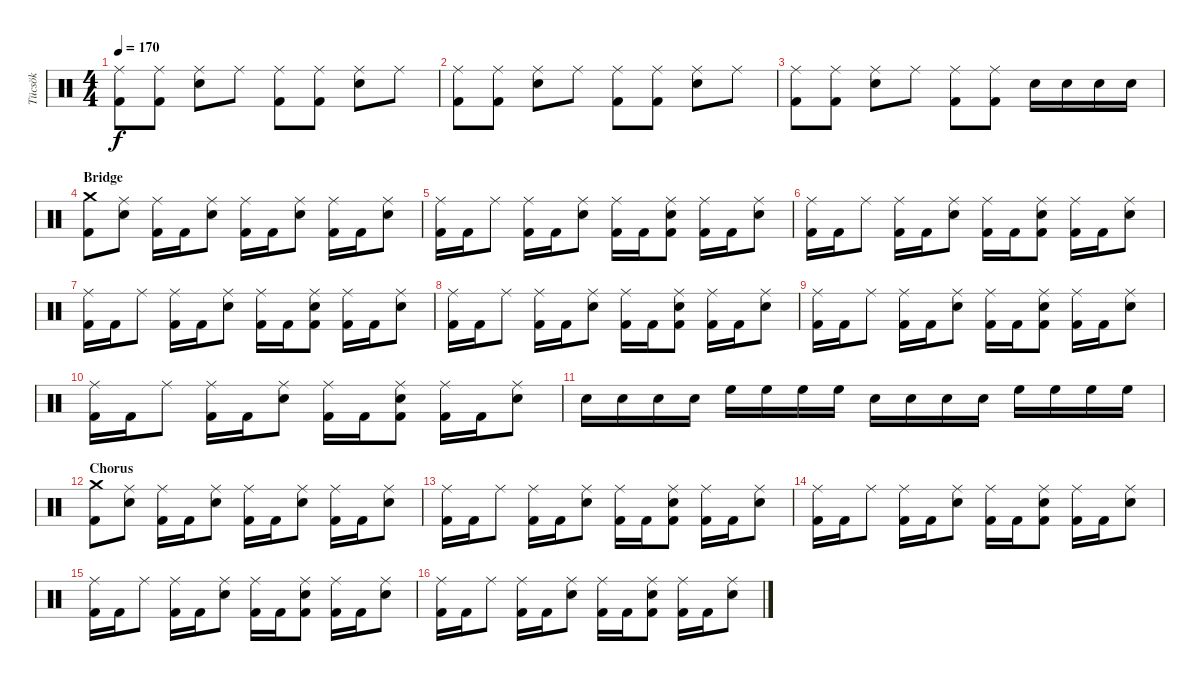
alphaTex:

\track ("Tücsök" "Tücsök") {instrument percussion}
\staff {score}
\articulation defaults
\ts (4 4)
\tempo 170
\clef neutral
\ks c
("Ride (middle)" "Kick (hit) 2").8{dy f} ("Ride (middle)" "Kick (hit) 2").8 ("Ride (middle)" "Electric Snare (hit)").8 "Ride (middle)".8 ("Ride (middle)" "Kick (hit) 2").8 ("Ride (middle)" "Kick (hit) 2").8 ("Ride (middle)" "Electric Snare (hit)").8 "Ride (middle)".8 |
("Ride (middle)" "Kick (hit) 2").8 ("Ride (middle)" "Kick (hit) 2").8 ("Ride (middle)" "Electric Snare (hit)").8 "Ride (middle)".8 ("Ride (middle)" "Kick (hit) 2").8 ("Ride (middle)" "Kick (hit) 2").8 ("Ride (middle)" "Electric Snare (hit)").8 "Ride (middle)".8 |
("Ride (middle)" "Kick (hit) 2").8 ("Ride (middle)" "Kick (hit) 2").8 ("Ride (middle)" "Electric Snare (hit)").8 "Ride (middle)".8 ("Ride (middle)" "Kick (hit) 2").8 ("Ride (middle)" "Kick (hit) 2").8 "Electric Snare (hit)".16 "Electric Snare (hit)".16 "Electric Snare (hit)".16 "Electric Snare (hit)".16 |
\section ("" "Bridge")
("Crash medium (hit)" "Kick (hit) 2").8 ("Ride (middle)" "Electric Snare (hit)").8 ("Ride (middle)" "Kick (hit) 2").16 "Kick (hit) 2".16 ("Ride (middle)" "Electric Snare (hit)").8 ("Ride (middle)" "Kick (hit) 2").16 "Kick (hit) 2".16 ("Ride (middle)" "Electric Snare (hit)").8 ("Ride (middle)" "Kick (hit) 2").16 "Kick (hit) 2".16 ("Ride (middle)" "Electric Snare (hit)").8 |
("Ride (middle)" "Kick (hit) 2").16 "Kick (hit) 2".16 "Ride (middle)".8 ("Ride (middle)" "Kick (hit) 2").16 "Kick (hit) 2".16 ("Ride (middle)" "Electric Snare (hit)").8 ("Ride (middle)" "Kick (hit) 2").16 "Kick (hit) 2".16 ("Ride (middle)" "Electric Snare (hit)" "Kick (hit) 2").8 ("Ride (middle)" "Kick (hit) 2").16 "Kick (hit) 2".16 ("Ride (middle)" "Electric Snare (hit)").8 |
("Ride (middle)" "Kick (hit) 2").16 "Kick (hit) 2".16 "Ride (middle)".8 ("Ride (middle)" "Kick (hit) 2").16 "Kick (hit) 2".16 ("Ride (middle)" "Electric Snare (hit)").8 ("Ride (middle)" "Kick (hit) 2").16 "Kick (hit) 2".16 ("Ride (middle)" "Electric Snare (hit)" "Kick (hit) 2").8 ("Ride (middle)" "Kick (hit) 2").16 "Kick (hit) 2".16 ("Ride (middle)" "Electric Snare (hit)").8 |
("Ride (middle)" "Kick (hit) 2").16 "Kick (hit) 2".16 "Ride (middle)".8 ("Ride (middle)" "Kick (hit) 2").16 "Kick (hit) 2".16 ("Ride (middle)" "Electric Snare (hit)").8 ("Ride (middle)" "Kick (hit) 2").16 "Kick (hit) 2".16 ("Ride (middle)" "Electric Snare (hit)" "Kick (hit) 2").8 ("Ride (middle)" "Kick (hit) 2").16 "Kick (hit) 2".16 ("Ride (middle)" "Electric Snare (hit)").8 |
("Ride (middle)" "Kick (hit) 2").16 "Kick (hit) 2".16 "Ride (middle)".8 ("Ride (middle)" "Kick (hit) 2").16 "Kick (hit) 2".16 ("Ride (middle)" "Electric Snare (hit)").8 ("Ride (middle)" "Kick (hit) 2").16 "Kick (hit) 2".16 ("Ride (middle)" "Electric Snare (hit)" "Kick (hit) 2").8 ("Ride (middle)" "Kick (hit) 2").16 "Kick (hit) 2".16 ("Ride (middle)" "Electric Snare (hit)").8 |
("Ride (middle)" "Kick (hit) 2").16 "Kick (hit) 2".16 "Ride (middle)".8 ("Ride (middle)" "Kick (hit) 2").16 "Kick (hit) 2".16 ("Ride (middle)" "Electric Snare (hit)").8 ("Ride (middle)" "Kick (hit) 2").16 "Kick (hit) 2".16 ("Ride (middle)" "Electric Snare (hit)" "Kick (hit) 2").8 ("Ride (middle)" "Kick (hit) 2").16 "Kick (hit) 2".16 ("Ride (middle)" "Electric Snare (hit)").8 |
("Ride (middle)" "Kick (hit) 2").16 "Kick (hit) 2".16 "Ride (middle)".8 ("Ride (middle)" "Kick (hit) 2").16 "Kick (hit) 2".16 ("Ride (middle)" "Electric Snare (hit)").8 ("Ride (middle)" "Kick (hit) 2").16 "Kick (hit) 2".16 ("Ride (middle)" "Electric Snare (hit)" "Kick (hit) 2").8 ("Ride (middle)" "Kick (hit) 2").16 "Kick (hit) 2".16 ("Ride (middle)" "Electric Snare (hit)").8 |
"Electric Snare (hit)".16 "Electric Snare (hit)".16 "Electric Snare (hit)".16 "Electric Snare (hit)".16 "High Floor Tom (hit)".16 "High Floor Tom (hit)".16 "High Floor Tom (hit)".16 "High Floor Tom (hit)".16 "Electric Snare (hit)".16 "Electric Snare (hit)".16 "Electric Snare (hit)".16 "Electric Snare (hit)".16 "High Floor Tom (hit)".16 "High Floor Tom (hit)".16 "High Floor Tom (hit)".16 "High Floor Tom (hit)".16 |
\section ("" "Chorus")
("Crash medium (hit)" "Kick (hit) 2").8 ("Ride (middle)" "Electric Snare (hit)").8 ("Ride (middle)" "Kick (hit) 2").16 "Kick (hit) 2".16 ("Ride (middle)" "Electric Snare (hit)").8 ("Ride (middle)" "Kick (hit) 2").16 "Kick (hit) 2".16 ("Ride (middle)" "Electric Snare (hit)").8 ("Ride (middle)" "Kick (hit) 2").16 "Kick (hit) 2".16 ("Ride (middle)" "Electric Snare (hit)").8 |
("Ride (middle)" "Kick (hit) 2").16 "Kick (hit) 2".16 "Ride (middle)".8 ("Ride (middle)" "Kick (hit) 2").16 "Kick (hit) 2".16 ("Ride (middle)" "Electric Snare (hit)").8 ("Ride (middle)" "Kick (hit) 2").16 "Kick (hit) 2".16 ("Ride (middle)" "Electric Snare (hit)" "Kick (hit) 2").8 ("Ride (middle)" "Kick (hit) 2").16 "Kick (hit) 2".16 ("Ride (middle)" "Electric Snare (hit)").8 |
("Ride (middle)" "Kick (hit) 2").16 "Kick (hit) 2".16 "Ride (middle)".8 ("Ride (middle)" "Kick (hit) 2").16 "Kick (hit) 2".16 ("Ride (middle)" "Electric Snare (hit)").8 ("Ride (middle)" "Kick (hit) 2").16 "Kick (hit) 2".16 ("Ride (middle)" "Electric Snare (hit)" "Kick (hit) 2").8 ("Ride (middle)" "Kick (hit) 2").16 "Kick (hit) 2".16 ("Ride (middle)" "Electric Snare (hit)").8 |
("Ride (middle)" "Kick (hit) 2").16 "Kick (hit) 2".16 "Ride (middle)".8 ("Ride (middle)" "Kick (hit) 2").16 "Kick (hit) 2".16 ("Ride (middle)" "Electric Snare (hit)").8 ("Ride (middle)" "Kick (hit) 2").16 "Kick (hit) 2".16 ("Ride (middle)" "Electric Snare (hit)" "Kick (hit) 2").8 ("Ride (middle)" "Kick (hit) 2").16 "Kick (hit) 2".16 ("Ride (middle)" "Electric Snare (hit)").8 |
("Ride (middle)" "Kick (hit) 2").16 "Kick (hit) 2".16 "Ride (middle)".8 ("Ride (middle)" "Kick (hit) 2").16 "Kick (hit) 2".16 ("Ride (middle)" "Electric Snare (hit)").8 ("Ride (middle)" "Kick (hit) 2").16 "Kick (hit) 2".16 ("Ride (middle)" "Electric Snare (hit)" "Kick (hit) 2").8 ("Ride (middle)" "Kick (hit) 2").16 "Kick (hit) 2".16 ("Ride (middle)" "Electric Snare (hit)").8
